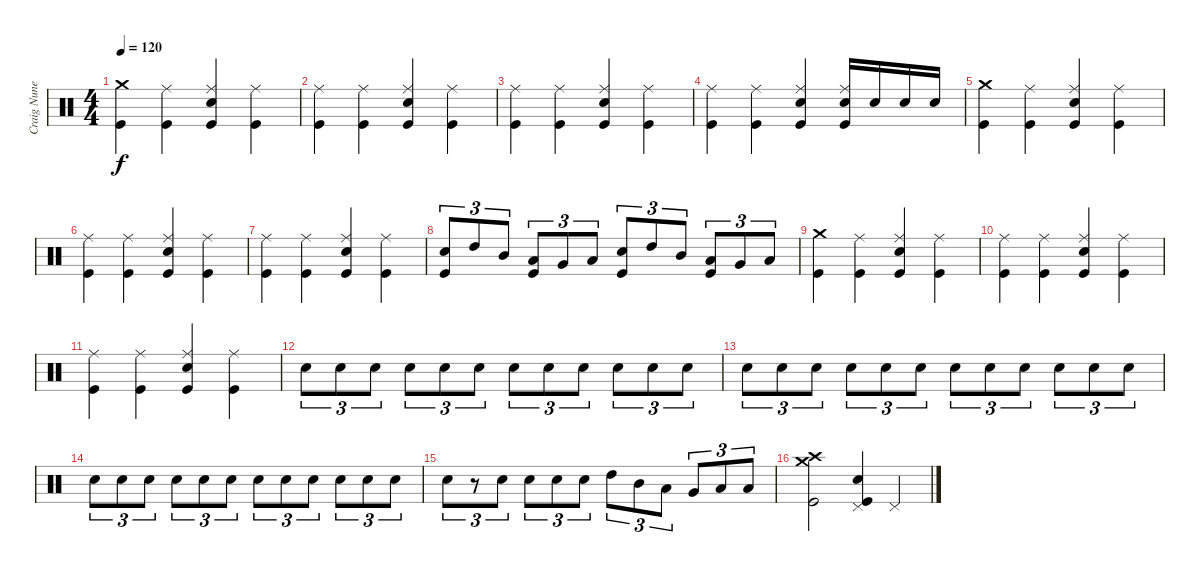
\track ("Craig Nunenmacher" "Craig Nune") {instrument percussion}
\staff {score}
\articulation defaults
\ts (4 4)
\tempo 120
\clef neutral
\ks c
("Crash medium (hit)" "Kick (hit)").4{dy f} ("Ride (middle)" "Kick (hit)").4 ("Ride (middle)" "Snare (hit) 2" "Kick (hit)").4 ("Ride (middle)" "Kick (hit)").4 |
("Ride (middle)" "Kick (hit)").4 ("Ride (middle)" "Kick (hit)").4 ("Ride (middle)" "Snare (hit) 2" "Kick (hit)").4 ("Ride (middle)" "Kick (hit)").4 |
("Ride (middle)" "Kick (hit)").4 ("Ride (middle)" "Kick (hit)").4 ("Ride (middle)" "Snare (hit) 2" "Kick (hit)").4 ("Ride (middle)" "Kick (hit)").4 |
("Ride (middle)" "Kick (hit)").4 ("Ride (middle)" "Kick (hit)").4 ("Ride (middle)" "Snare (hit) 2" "Kick (hit)").4 ("Ride (middle)" "Snare (hit) 2" "Kick (hit)").16 "Snare (hit) 2".16 "Snare (hit) 2".16 "Snare (hit) 2".16 |
("Crash medium (hit)" "Kick (hit)").4 ("Ride (middle)" "Kick (hit)").4 ("Ride (middle)" "Snare (hit) 2" "Kick (hit)").4 ("Ride (middle)" "Kick (hit)").4 |
("Ride (middle)" "Kick (hit)").4 ("Ride (middle)" "Kick (hit)").4 ("Ride (middle)" "Snare (hit) 2" "Kick (hit)").4 ("Ride (middle)" "Kick (hit)").4 |
("Ride (middle)" "Kick (hit)").4 ("Ride (middle)" "Kick (hit)").4 ("Ride (middle)" "Snare (hit) 2" "Kick (hit)").4 ("Ride (middle)" "Kick (hit)").4 |
("Snare (hit) 2" "Kick (hit)").8{tu (3 2)} "High Tom (hit)".8{tu (3 2)} "Mid Tom (hit)".8{tu (3 2)} ("Low Tom (hit)" "Kick (hit)").8{tu (3 2)} "Very Low Tom (hit)".8{tu (3 2)} "Low Floor Tom (hit)".8{tu (3 2)} ("Snare (hit) 2" "Kick (hit)").8{tu (3 2)} "High Tom (hit)".8{tu (3 2)} "Mid Tom (hit)".8{tu (3 2)} ("Low Tom (hit)" "Kick (hit)").8{tu (3 2)} "Very Low Tom (hit)".8{tu (3 2)} "Low Floor Tom (hit)".8{tu (3 2)} |
("Crash medium (hit)" "Kick (hit)").4 ("Ride (middle)" "Kick (hit)").4 ("Ride (middle)" "Snare (hit) 2" "Kick (hit)").4 ("Ride (middle)" "Kick (hit)").4 |
("Ride (middle)" "Kick (hit)").4 ("Ride (middle)" "Kick (hit)").4 ("Ride (middle)" "Snare (hit) 2" "Kick (hit)").4 ("Ride (middle)" "Kick (hit)").4 |
("Ride (middle)" "Kick (hit)").4 ("Ride (middle)" "Kick (hit)").4 ("Ride (middle)" "Snare (hit) 2" "Kick (hit)").4 ("Ride (middle)" "Kick (hit)").4 |
"Snare (hit) 2".8{tu (3 2)} "Snare (hit) 2".8{tu (3 2)} "Snare (hit) 2".8{tu (3 2)} "Snare (hit) 2".8{tu (3 2)} "Snare (hit) 2".8{tu (3 2)} "Snare (hit) 2".8{tu (3 2)} "Snare (hit) 2".8{tu (3 2)} "Snare (hit) 2".8{tu (3 2)} "Snare (hit) 2".8{tu (3 2)} "Snare (hit) 2".8{tu (3 2)} "Snare (hit) 2".8{tu (3 2)} "Snare (hit) 2".8{tu (3 2)} |
"Snare (hit) 2".8{tu (3 2)} "Snare (hit) 2".8{tu (3 2)} "Snare (hit) 2".8{tu (3 2)} "Snare (hit) 2".8{tu (3 2)} "Snare (hit) 2".8{tu (3 2)} "Snare (hit) 2".8{tu (3 2)} "Snare (hit) 2".8{tu (3 2)} "Snare (hit) 2".8{tu (3 2)} "Snare (hit) 2".8{tu (3 2)} "Snare (hit) 2".8{tu (3 2)} "Snare (hit) 2".8{tu (3 2)} "Snare (hit) 2".8{tu (3 2)} |
"Snare (hit) 2".8{tu (3 2)} "Snare (hit) 2".8{tu (3 2)} "Snare (hit) 2".8{tu (3 2)} "Snare (hit) 2".8{tu (3 2)} "Snare (hit) 2".8{tu (3 2)} "Snare (hit) 2".8{tu (3 2)} "Snare (hit) 2".8{tu (3 2)} "Snare (hit) 2".8{tu (3 2)} "Snare (hit) 2".8{tu (3 2)} "Snare (hit) 2".8{tu (3 2)} "Snare (hit) 2".8{tu (3 2)} "Snare (hit) 2".8{tu (3 2)} |
"Snare (hit) 2".8{tu (3 2)} r.8{tu (3 2)} "Snare (hit) 2".8{tu (3 2)} "Snare (hit) 2".8{tu (3 2)} "Snare (hit) 2".8{tu (3 2)} "Snare (hit) 2".8{tu (3 2)} "High Tom (hit)".8{tu (3 2)} "Mid Tom (hit)".8{tu (3 2)} "Low Tom (hit)".8{tu (3 2)} "Very Low Tom (hit)".8{tu (3 2)} "Low Floor Tom (hit)".8{tu (3 2)} "Low Floor Tom (hit)".8{tu (3 2)} |
("Crash high (hit)" "Crash medium (hit)" "Kick (hit)").2 ("Pedal Hi-Hat (hit)" "Snare (hit) 2" "Kick (hit)").4 "Pedal Hi-Hat (hit)".4
